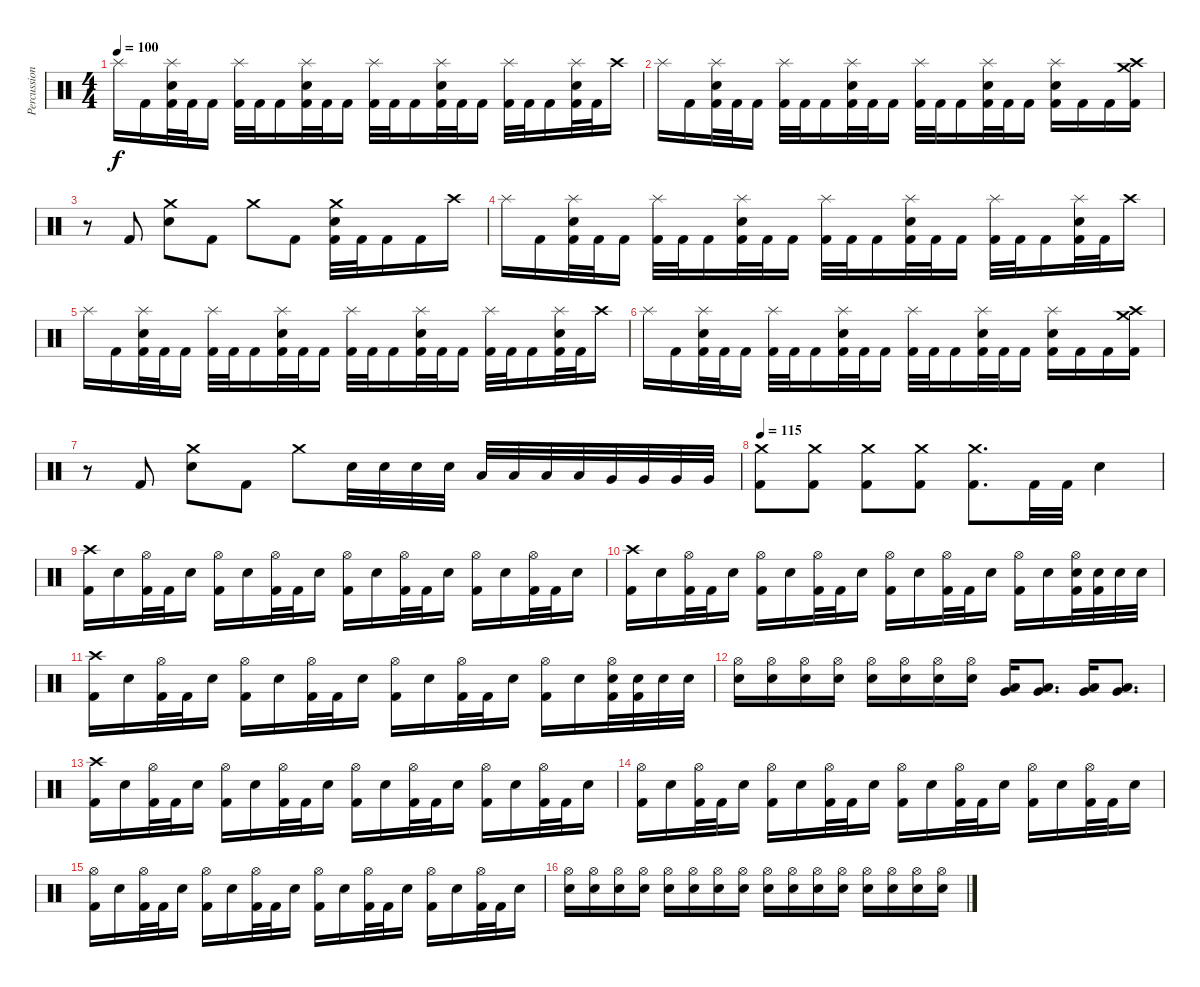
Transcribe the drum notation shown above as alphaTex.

\track ("Percussion" "Percussion") {instrument percussion}
\staff {score}
\articulation defaults
\ts (4 4)
\tempo 100
\clef neutral
\ks c "Splash (hit)".16{dy f} "Kick (hit) 2".16
("Splash (hit)" "Electric Snare (hit)" "Kick (hit) 2").32 "Kick (hit) 2".32 "Kick (hit) 2".16 ("Splash (hit)" "Kick (hit) 2").32 "Kick (hit) 2".32 "Kick (hit) 2".16 ("Splash (hit)" "Electric Snare (hit)" "Kick (hit) 2").32 "Kick (hit) 2".32 "Kick (hit) 2".16 ("Splash (hit)" "Kick (hit) 2").32 "Kick (hit) 2".32 "Kick (hit) 2".16 ("Splash (hit)" "Electric Snare (hit)" "Kick (hit) 2").32 "Kick (hit) 2".32 "Kick (hit) 2".16 ("Splash (hit)" "Kick (hit) 2").32 "Kick (hit) 2".32 "Kick (hit) 2".16 ("Splash (hit)" "Electric Snare (hit)" "Kick (hit) 2").32 "Kick (hit) 2".32 "Crash high (hit)".16 |
"Splash (hit)".16 "Kick (hit) 2".16 ("Splash (hit)" "Electric Snare (hit)" "Kick (hit) 2").32 "Kick (hit) 2".32 "Kick (hit) 2".16 ("Splash (hit)" "Kick (hit) 2").32 "Kick (hit) 2".32 "Kick (hit) 2".16 ("Splash (hit)" "Electric Snare (hit)" "Kick (hit) 2").32 "Kick (hit) 2".32 "Kick (hit) 2".16 ("Splash (hit)" "Kick (hit) 2").32 "Kick (hit) 2".32 "Kick (hit) 2".16 ("Splash (hit)" "Electric Snare (hit)" "Kick (hit) 2").32 "Kick (hit) 2".32 "Kick (hit) 2".16 ("Splash (hit)" "Electric Snare (hit)" "Kick (hit) 2").16 "Kick (hit) 2".16 "Kick (hit) 2".16 ("Crash medium (hit)" "Crash high (hit)" "Kick (hit) 2").16 |
r.8 "Kick (hit) 2".8 ("Crash medium (hit)" "Electric Snare (hit)").8 "Kick (hit) 2".8 "Crash medium (hit)".8 "Kick (hit) 2".8 ("Crash medium (hit)" "Electric Snare (hit)" "Kick (hit) 2").32 "Kick (hit) 2".32 "Kick (hit) 2".16 "Kick (hit) 2".16 "Crash high (hit)".16 |
"Splash (hit)".16 "Kick (hit) 2".16 ("Splash (hit)" "Electric Snare (hit)" "Kick (hit) 2").32 "Kick (hit) 2".32 "Kick (hit) 2".16 ("Splash (hit)" "Kick (hit) 2").32 "Kick (hit) 2".32 "Kick (hit) 2".16 ("Splash (hit)" "Electric Snare (hit)" "Kick (hit) 2").32 "Kick (hit) 2".32 "Kick (hit) 2".16 ("Splash (hit)" "Kick (hit) 2").32 "Kick (hit) 2".32 "Kick (hit) 2".16 ("Splash (hit)" "Electric Snare (hit)" "Kick (hit) 2").32 "Kick (hit) 2".32 "Kick (hit) 2".16 ("Splash (hit)" "Kick (hit) 2").32 "Kick (hit) 2".32 "Kick (hit) 2".16 ("Splash (hit)" "Electric Snare (hit)" "Kick (hit) 2").32 "Kick (hit) 2".32 "Crash high (hit)".16 |
"Splash (hit)".16 "Kick (hit) 2".16 ("Splash (hit)" "Electric Snare (hit)" "Kick (hit) 2").32 "Kick (hit) 2".32 "Kick (hit) 2".16 ("Splash (hit)" "Kick (hit) 2").32 "Kick (hit) 2".32 "Kick (hit) 2".16 ("Splash (hit)" "Electric Snare (hit)" "Kick (hit) 2").32 "Kick (hit) 2".32 "Kick (hit) 2".16 ("Splash (hit)" "Kick (hit) 2").32 "Kick (hit) 2".32 "Kick (hit) 2".16 ("Splash (hit)" "Electric Snare (hit)" "Kick (hit) 2").32 "Kick (hit) 2".32 "Kick (hit) 2".16 ("Splash (hit)" "Kick (hit) 2").32 "Kick (hit) 2".32 "Kick (hit) 2".16 ("Splash (hit)" "Electric Snare (hit)" "Kick (hit) 2").32 "Kick (hit) 2".32 "Crash high (hit)".16 |
"Splash (hit)".16 "Kick (hit) 2".16 ("Splash (hit)" "Electric Snare (hit)" "Kick (hit) 2").32 "Kick (hit) 2".32 "Kick (hit) 2".16 ("Splash (hit)" "Kick (hit) 2").32 "Kick (hit) 2".32 "Kick (hit) 2".16 ("Splash (hit)" "Electric Snare (hit)" "Kick (hit) 2").32 "Kick (hit) 2".32 "Kick (hit) 2".16 ("Splash (hit)" "Kick (hit) 2").32 "Kick (hit) 2".32 "Kick (hit) 2".16 ("Splash (hit)" "Electric Snare (hit)" "Kick (hit) 2").32 "Kick (hit) 2".32 "Kick (hit) 2".16 ("Splash (hit)" "Electric Snare (hit)" "Kick (hit) 2").16 "Kick (hit) 2".16 "Kick (hit) 2".16 ("Crash medium (hit)" "Crash high (hit)" "Kick (hit) 2").16 |
r.8 "Kick (hit) 2".8 ("Crash medium (hit)" "Electric Snare (hit)").8 "Kick (hit) 2".8 "Crash medium (hit)".8 "Electric Snare (hit)".32 "Electric Snare (hit)".32 "Electric Snare (hit)".32 "Electric Snare (hit)".32 "Low Tom (hit)".32 "Low Tom (hit)".32 "Low Tom (hit)".32 "Low Tom (hit)".32 "Very Low Tom (hit)".32 "Very Low Tom (hit)".32 "Very Low Tom (hit)".32 "Very Low Tom (hit)".32 |
\tempo 115
("Crash medium (hit)" "Kick (hit) 2").8 ("Crash medium (hit)" "Kick (hit) 2").8 ("Crash medium (hit)" "Kick (hit) 2").8 ("Crash medium (hit)" "Kick (hit) 2").8 ("Crash medium (hit)" "Kick (hit) 2").8{d} "Kick (hit) 2".32 "Kick (hit) 2".32 "Electric Snare (hit)".4 |
("Crash high (hit)" "Kick (hit) 2").16 "Electric Snare (hit)".16 ("Hi-Hat (open)" "Kick (hit) 2").32 "Kick (hit) 2".32 "Electric Snare (hit)".16 ("Hi-Hat (open)" "Kick (hit) 2").16 "Electric Snare (hit)".16 ("Hi-Hat (open)" "Kick (hit) 2").32 "Kick (hit) 2".32 "Electric Snare (hit)".16 ("Hi-Hat (open)" "Kick (hit) 2").16 "Electric Snare (hit)".16 ("Hi-Hat (open)" "Kick (hit) 2").32 "Kick (hit) 2".32 "Electric Snare (hit)".16 ("Hi-Hat (open)" "Kick (hit) 2").16 "Electric Snare (hit)".16 ("Hi-Hat (open)" "Kick (hit) 2").32 "Kick (hit) 2".32 "Electric Snare (hit)".16 |
("Crash high (hit)" "Kick (hit) 2").16 "Electric Snare (hit)".16 ("Hi-Hat (open)" "Kick (hit) 2").32 "Kick (hit) 2".32 "Electric Snare (hit)".16 ("Hi-Hat (open)" "Kick (hit) 2").16 "Electric Snare (hit)".16 ("Hi-Hat (open)" "Kick (hit) 2").32 "Kick (hit) 2".32 "Electric Snare (hit)".16 ("Hi-Hat (open)" "Kick (hit) 2").16 "Electric Snare (hit)".16 ("Hi-Hat (open)" "Kick (hit) 2").32 "Kick (hit) 2".32 "Electric Snare (hit)".16 ("Hi-Hat (open)" "Kick (hit) 2").16 "Electric Snare (hit)".16 ("Hi-Hat (open)" "Electric Snare (hit)" "Kick (hit) 2").32 ("Electric Snare (hit)" "Kick (hit) 2").32 "Electric Snare (hit)".32 "Electric Snare (hit)".32 |
("Crash high (hit)" "Kick (hit) 2").16 "Electric Snare (hit)".16 ("Hi-Hat (open)" "Kick (hit) 2").32 "Kick (hit) 2".32 "Electric Snare (hit)".16 ("Hi-Hat (open)" "Kick (hit) 2").16 "Electric Snare (hit)".16 ("Hi-Hat (open)" "Kick (hit) 2").32 "Kick (hit) 2".32 "Electric Snare (hit)".16 ("Hi-Hat (open)" "Kick (hit) 2").16 "Electric Snare (hit)".16 ("Hi-Hat (open)" "Kick (hit) 2").32 "Kick (hit) 2".32 "Electric Snare (hit)".16 ("Hi-Hat (open)" "Kick (hit) 2").16 "Electric Snare (hit)".16 ("Hi-Hat (open)" "Electric Snare (hit)" "Kick (hit) 2").32 ("Electric Snare (hit)" "Kick (hit) 2").32 "Electric Snare (hit)".32 "Electric Snare (hit)".32 |
("Hi-Hat (open)" "Electric Snare (hit)").16 ("Hi-Hat (open)" "Electric Snare (hit)").16 ("Hi-Hat (open)" "Electric Snare (hit)").16 ("Hi-Hat (open)" "Electric Snare (hit)").16 ("Hi-Hat (open)" "Electric Snare (hit)").16 ("Hi-Hat (open)" "Electric Snare (hit)").16 ("Hi-Hat (open)" "Electric Snare (hit)").16 ("Hi-Hat (open)" "Electric Snare (hit)").16 ("Very Low Tom (hit)" "Low Tom (hit)").16 ("Very Low Tom (hit)" "Low Tom (hit)").8{d} ("Low Floor Tom (hit)" "Very Low Tom (hit)").16 ("Low Floor Tom (hit)" "Very Low Tom (hit)").8{d} |
("Crash high (hit)" "Kick (hit) 2").16 "Electric Snare (hit)".16 ("Hi-Hat (open)" "Kick (hit) 2").32 "Kick (hit) 2".32 "Electric Snare (hit)".16 ("Hi-Hat (open)" "Kick (hit) 2").16 "Electric Snare (hit)".16 ("Hi-Hat (open)" "Kick (hit) 2").32 "Kick (hit) 2".32 "Electric Snare (hit)".16 ("Hi-Hat (open)" "Kick (hit) 2").16 "Electric Snare (hit)".16 ("Hi-Hat (open)" "Kick (hit) 2").32 "Kick (hit) 2".32 "Electric Snare (hit)".16 ("Hi-Hat (open)" "Kick (hit) 2").16 "Electric Snare (hit)".16 ("Hi-Hat (open)" "Kick (hit) 2").32 "Kick (hit) 2".32 "Electric Snare (hit)".16 |
("Hi-Hat (open)" "Kick (hit) 2").16 "Electric Snare (hit)".16 ("Hi-Hat (open)" "Kick (hit) 2").32 "Kick (hit) 2".32 "Electric Snare (hit)".16 ("Hi-Hat (open)" "Kick (hit) 2").16 "Electric Snare (hit)".16 ("Hi-Hat (open)" "Kick (hit) 2").32 "Kick (hit) 2".32 "Electric Snare (hit)".16 ("Hi-Hat (open)" "Kick (hit) 2").16 "Electric Snare (hit)".16 ("Hi-Hat (open)" "Kick (hit) 2").32 "Kick (hit) 2".32 "Electric Snare (hit)".16 ("Hi-Hat (open)" "Kick (hit) 2").16 "Electric Snare (hit)".16 ("Hi-Hat (open)" "Kick (hit) 2").32 "Kick (hit) 2".32 "Electric Snare (hit)".16 |
("Hi-Hat (open)" "Kick (hit) 2").16 "Electric Snare (hit)".16 ("Hi-Hat (open)" "Kick (hit) 2").32 "Kick (hit) 2".32 "Electric Snare (hit)".16 ("Hi-Hat (open)" "Kick (hit) 2").16 "Electric Snare (hit)".16 ("Hi-Hat (open)" "Kick (hit) 2").32 "Kick (hit) 2".32 "Electric Snare (hit)".16 ("Hi-Hat (open)" "Kick (hit) 2").16 "Electric Snare (hit)".16 ("Hi-Hat (open)" "Kick (hit) 2").32 "Kick (hit) 2".32 "Electric Snare (hit)".16 ("Hi-Hat (open)" "Kick (hit) 2").16 "Electric Snare (hit)".16 ("Hi-Hat (open)" "Kick (hit) 2").32 "Kick (hit) 2".32 "Electric Snare (hit)".16 |
("Hi-Hat (open)" "Electric Snare (hit)").16 ("Hi-Hat (open)" "Electric Snare (hit)").16 ("Hi-Hat (open)" "Electric Snare (hit)").16 ("Hi-Hat (open)" "Electric Snare (hit)").16 ("Hi-Hat (open)" "Electric Snare (hit)").16 ("Hi-Hat (open)" "Electric Snare (hit)").16 ("Hi-Hat (open)" "Electric Snare (hit)").16 ("Hi-Hat (open)" "Electric Snare (hit)").16 ("Hi-Hat (open)" "Electric Snare (hit)").16 ("Hi-Hat (open)" "Electric Snare (hit)").16 ("Hi-Hat (open)" "Electric Snare (hit)").16 ("Hi-Hat (open)" "Electric Snare (hit)").16 ("Hi-Hat (open)" "Electric Snare (hit)").16 ("Hi-Hat (open)" "Electric Snare (hit)").16 ("Hi-Hat (open)" "Electric Snare (hit)").16 ("Hi-Hat (open)" "Electric Snare (hit)").16
